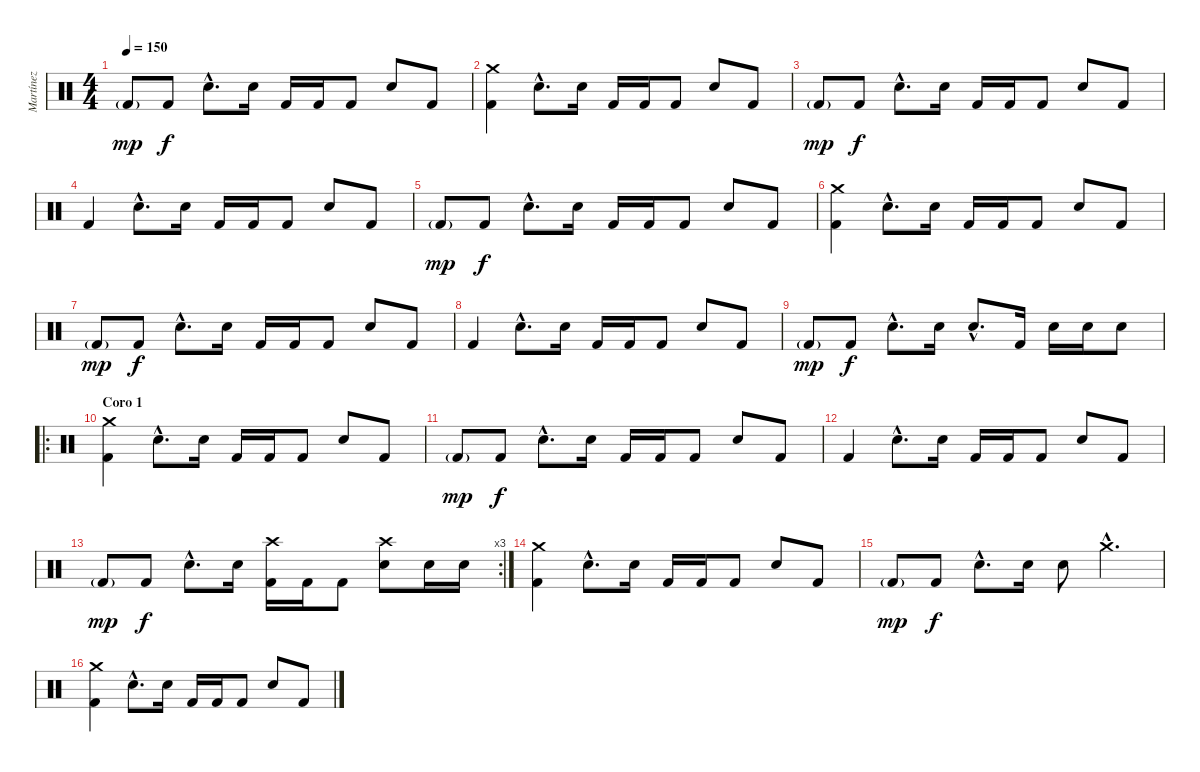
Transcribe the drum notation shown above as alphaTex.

\track ("Martínez" "Martínez") {instrument percussion}
\staff {score}
\articulation defaults
\ts (4 4)
\tempo 150
\clef neutral
\ks c "Kick (hit) 2"{g}.8{dy mp} "Kick (hit) 2".8{dy f} "Electric Snare (hit)"{hac}.8{d} "Electric Snare (hit)".16 "Kick (hit) 2".16 "Kick (hit) 2".16 "Kick (hit) 2".8 "Electric Snare (hit)".8 "Kick (hit) 2".8
|
("Crash medium (hit)" "Kick (hit) 2").4 "Electric Snare (hit)"{hac}.8{d} "Electric Snare (hit)".16 "Kick (hit) 2".16 "Kick (hit) 2".16 "Kick (hit) 2".8 "Electric Snare (hit)".8 "Kick (hit) 2".8 |
"Kick (hit) 2"{g}.8{dy mp} "Kick (hit) 2".8{dy f} "Electric Snare (hit)"{hac}.8{d} "Electric Snare (hit)".16 "Kick (hit) 2".16 "Kick (hit) 2".16 "Kick (hit) 2".8 "Electric Snare (hit)".8 "Kick (hit) 2".8 |
"Kick (hit) 2".4 "Electric Snare (hit)"{hac}.8{d} "Electric Snare (hit)".16 "Kick (hit) 2".16 "Kick (hit) 2".16 "Kick (hit) 2".8 "Electric Snare (hit)".8 "Kick (hit) 2".8 |
"Kick (hit) 2"{g}.8{dy mp} "Kick (hit) 2".8{dy f} "Electric Snare (hit)"{hac}.8{d} "Electric Snare (hit)".16 "Kick (hit) 2".16 "Kick (hit) 2".16 "Kick (hit) 2".8 "Electric Snare (hit)".8 "Kick (hit) 2".8 |
("Crash medium (hit)" "Kick (hit) 2").4 "Electric Snare (hit)"{hac}.8{d} "Electric Snare (hit)".16 "Kick (hit) 2".16 "Kick (hit) 2".16 "Kick (hit) 2".8 "Electric Snare (hit)".8 "Kick (hit) 2".8 |
"Kick (hit) 2"{g}.8{dy mp} "Kick (hit) 2".8{dy f} "Electric Snare (hit)"{hac}.8{d} "Electric Snare (hit)".16 "Kick (hit) 2".16 "Kick (hit) 2".16 "Kick (hit) 2".8 "Electric Snare (hit)".8 "Kick (hit) 2".8 |
"Kick (hit) 2".4 "Electric Snare (hit)"{hac}.8{d} "Electric Snare (hit)".16 "Kick (hit) 2".16 "Kick (hit) 2".16 "Kick (hit) 2".8 "Electric Snare (hit)".8 "Kick (hit) 2".8 |
"Kick (hit) 2"{g}.8{dy mp} "Kick (hit) 2".8{dy f} "Electric Snare (hit)"{hac}.8{d} "Electric Snare (hit)".16 "Electric Snare (hit)"{hac}.8{d} "Kick (hit) 2".16 "Electric Snare (hit)".16 "Electric Snare (hit)".16 "Electric Snare (hit)".8 |
\ro
\section ("" "Coro 1")
("Crash medium (hit)" "Kick (hit) 2").4 "Electric Snare (hit)"{hac}.8{d} "Electric Snare (hit)".16 "Kick (hit) 2".16 "Kick (hit) 2".16 "Kick (hit) 2".8 "Electric Snare (hit)".8 "Kick (hit) 2".8 |
"Kick (hit) 2"{g}.8{dy mp} "Kick (hit) 2".8{dy f} "Electric Snare (hit)"{hac}.8{d} "Electric Snare (hit)".16 "Kick (hit) 2".16 "Kick (hit) 2".16 "Kick (hit) 2".8 "Electric Snare (hit)".8 "Kick (hit) 2".8 |
"Kick (hit) 2".4 "Electric Snare (hit)"{hac}.8{d} "Electric Snare (hit)".16 "Kick (hit) 2".16 "Kick (hit) 2".16 "Kick (hit) 2".8 "Electric Snare (hit)".8 "Kick (hit) 2".8 |
\rc 3 "Kick (hit) 2"{g}.8{dy mp} "Kick (hit) 2".8{dy f} "Electric Snare (hit)"{hac}.8{d} "Electric Snare (hit)".16
("Crash high (hit)" "Kick (hit) 2").16 "Kick (hit) 2".16 "Kick (hit) 2".8 ("Crash high (hit)" "Electric Snare (hit)").8 "Electric Snare (hit)".16 "Electric Snare (hit)".16 |
("Crash medium (hit)" "Kick (hit) 2").4 "Electric Snare (hit)"{hac}.8{d} "Electric Snare (hit)".16 "Kick (hit) 2".16 "Kick (hit) 2".16 "Kick (hit) 2".8 "Electric Snare (hit)".8 "Kick (hit) 2".8 |
"Kick (hit) 2"{g}.8{dy mp} "Kick (hit) 2".8{dy f} "Electric Snare (hit)"{hac}.8{d} "Electric Snare (hit)".16 "Electric Snare (hit)".8 "Crash medium (hit)"{hac}.4{d} |
("Crash medium (hit)" "Kick (hit) 2").4 "Electric Snare (hit)"{hac}.8{d} "Electric Snare (hit)".16 "Kick (hit) 2".16 "Kick (hit) 2".16 "Kick (hit) 2".8 "Electric Snare (hit)".8 "Kick (hit) 2".8
